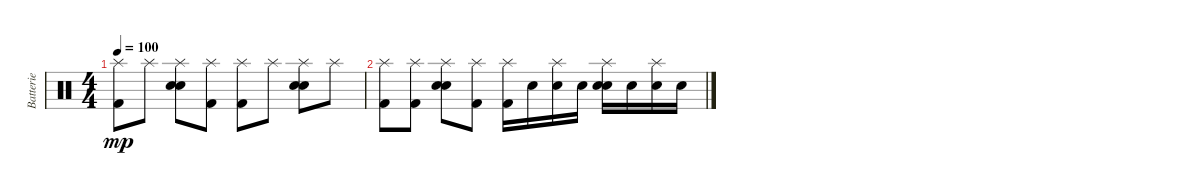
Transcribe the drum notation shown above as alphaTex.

\track ("Batterie" "Batterie") {instrument percussion}
\staff {score}
\articulation defaults
\ts (4 4)
\tempo 100
\clef neutral
\ks c
("Kick (hit) 2" "Splash (hit)").8{dy mp} "Splash (hit)".8 ("Hand Clap (hit)" "Electric Snare (hit)" "Splash (hit)").8 ("Kick (hit) 2" "Splash (hit)").8 ("Kick (hit) 2" "Splash (hit)").8 "Splash (hit)".8 ("Hand Clap (hit)" "Electric Snare (hit)" "Splash (hit)").8 "Splash (hit)".8 |
("Kick (hit) 2" "Splash (hit)").8 ("Kick (hit) 2" "Splash (hit)").8 ("Hand Clap (hit)" "Electric Snare (hit)" "Splash (hit)").8 ("Kick (hit) 2" "Splash (hit)").8 ("Kick (hit) 2" "Splash (hit)").16 "Electric Snare (hit)".16 ("Electric Snare (hit)" "Splash (hit)").16 "Electric Snare (hit)".16 ("Hand Clap (hit)" "Electric Snare (hit)" "Splash (hit)").16 "Electric Snare (hit)".16 ("Electric Snare (hit)" "Splash (hit)").16 "Electric Snare (hit)".16
